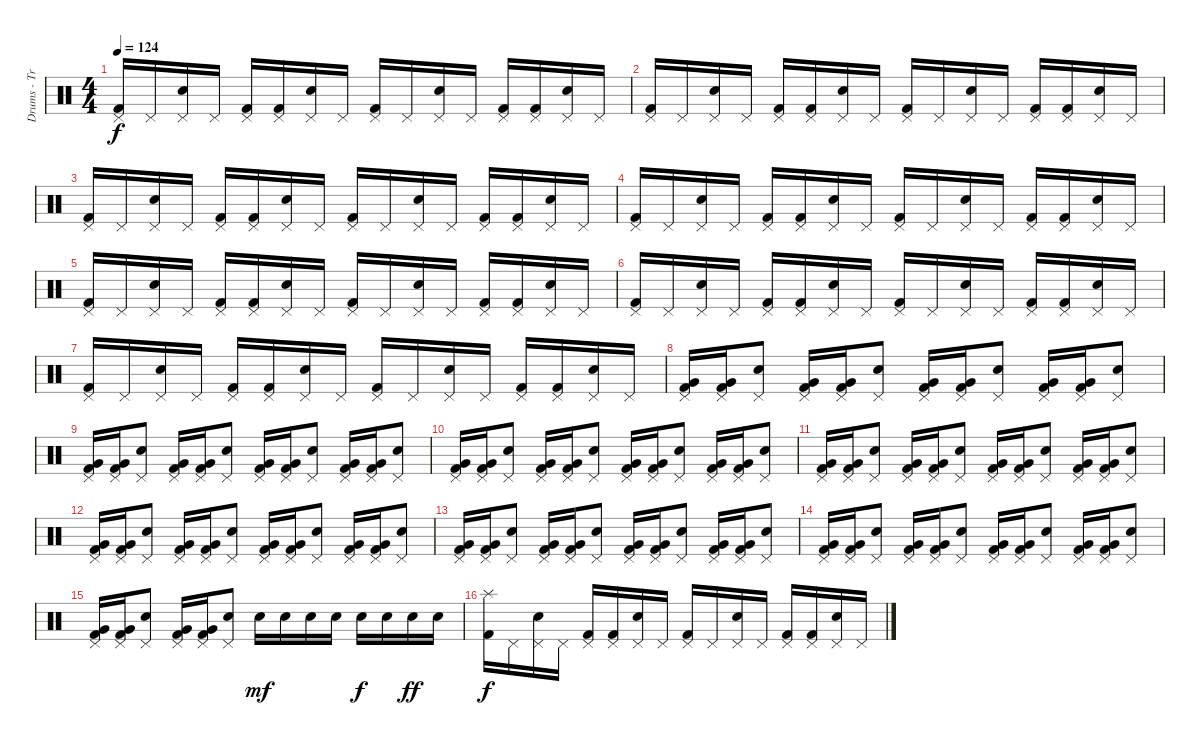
\track ("Drums - Travis Barker" "Drums - Tr") {instrument percussion}
\staff {score}
\articulation defaults
\ts (4 4)
\tempo 124
\clef neutral
\ks c
("Pedal Hi-Hat (hit)" "Kick (hit) 2").16{dy f} "Pedal Hi-Hat (hit)".16 ("Pedal Hi-Hat (hit)" "Electric Snare (hit)").16 "Pedal Hi-Hat (hit)".16 ("Pedal Hi-Hat (hit)" "Kick (hit) 2").16 ("Pedal Hi-Hat (hit)" "Kick (hit) 2").16 ("Pedal Hi-Hat (hit)" "Electric Snare (hit)").16 "Pedal Hi-Hat (hit)".16 ("Pedal Hi-Hat (hit)" "Kick (hit) 2").16 "Pedal Hi-Hat (hit)".16 ("Pedal Hi-Hat (hit)" "Electric Snare (hit)").16 "Pedal Hi-Hat (hit)".16 ("Pedal Hi-Hat (hit)" "Kick (hit) 2").16 ("Pedal Hi-Hat (hit)" "Kick (hit) 2").16 ("Pedal Hi-Hat (hit)" "Electric Snare (hit)").16 "Pedal Hi-Hat (hit)".16 |
("Pedal Hi-Hat (hit)" "Kick (hit) 2").16 "Pedal Hi-Hat (hit)".16 ("Pedal Hi-Hat (hit)" "Electric Snare (hit)").16 "Pedal Hi-Hat (hit)".16 ("Pedal Hi-Hat (hit)" "Kick (hit) 2").16 ("Pedal Hi-Hat (hit)" "Kick (hit) 2").16 ("Pedal Hi-Hat (hit)" "Electric Snare (hit)").16 "Pedal Hi-Hat (hit)".16 ("Pedal Hi-Hat (hit)" "Kick (hit) 2").16 "Pedal Hi-Hat (hit)".16 ("Pedal Hi-Hat (hit)" "Electric Snare (hit)").16 "Pedal Hi-Hat (hit)".16 ("Pedal Hi-Hat (hit)" "Kick (hit) 2").16 ("Pedal Hi-Hat (hit)" "Kick (hit) 2").16 ("Pedal Hi-Hat (hit)" "Electric Snare (hit)").16 "Pedal Hi-Hat (hit)".16 |
("Pedal Hi-Hat (hit)" "Kick (hit) 2").16 "Pedal Hi-Hat (hit)".16 ("Pedal Hi-Hat (hit)" "Electric Snare (hit)").16 "Pedal Hi-Hat (hit)".16 ("Pedal Hi-Hat (hit)" "Kick (hit) 2").16 ("Pedal Hi-Hat (hit)" "Kick (hit) 2").16 ("Pedal Hi-Hat (hit)" "Electric Snare (hit)").16 "Pedal Hi-Hat (hit)".16 ("Pedal Hi-Hat (hit)" "Kick (hit) 2").16 "Pedal Hi-Hat (hit)".16 ("Pedal Hi-Hat (hit)" "Electric Snare (hit)").16 "Pedal Hi-Hat (hit)".16 ("Pedal Hi-Hat (hit)" "Kick (hit) 2").16 ("Pedal Hi-Hat (hit)" "Kick (hit) 2").16 ("Pedal Hi-Hat (hit)" "Electric Snare (hit)").16 "Pedal Hi-Hat (hit)".16 |
("Pedal Hi-Hat (hit)" "Kick (hit) 2").16 "Pedal Hi-Hat (hit)".16 ("Pedal Hi-Hat (hit)" "Electric Snare (hit)").16 "Pedal Hi-Hat (hit)".16 ("Pedal Hi-Hat (hit)" "Kick (hit) 2").16 ("Pedal Hi-Hat (hit)" "Kick (hit) 2").16 ("Pedal Hi-Hat (hit)" "Electric Snare (hit)").16 "Pedal Hi-Hat (hit)".16 ("Pedal Hi-Hat (hit)" "Kick (hit) 2").16 "Pedal Hi-Hat (hit)".16 ("Pedal Hi-Hat (hit)" "Electric Snare (hit)").16 "Pedal Hi-Hat (hit)".16 ("Pedal Hi-Hat (hit)" "Kick (hit) 2").16 ("Pedal Hi-Hat (hit)" "Kick (hit) 2").16 ("Pedal Hi-Hat (hit)" "Electric Snare (hit)").16 "Pedal Hi-Hat (hit)".16 |
("Pedal Hi-Hat (hit)" "Kick (hit) 2").16 "Pedal Hi-Hat (hit)".16 ("Pedal Hi-Hat (hit)" "Electric Snare (hit)").16 "Pedal Hi-Hat (hit)".16 ("Pedal Hi-Hat (hit)" "Kick (hit) 2").16 ("Pedal Hi-Hat (hit)" "Kick (hit) 2").16 ("Pedal Hi-Hat (hit)" "Electric Snare (hit)").16 "Pedal Hi-Hat (hit)".16 ("Pedal Hi-Hat (hit)" "Kick (hit) 2").16 "Pedal Hi-Hat (hit)".16 ("Pedal Hi-Hat (hit)" "Electric Snare (hit)").16 "Pedal Hi-Hat (hit)".16 ("Pedal Hi-Hat (hit)" "Kick (hit) 2").16 ("Pedal Hi-Hat (hit)" "Kick (hit) 2").16 ("Pedal Hi-Hat (hit)" "Electric Snare (hit)").16 "Pedal Hi-Hat (hit)".16 |
("Pedal Hi-Hat (hit)" "Kick (hit) 2").16 "Pedal Hi-Hat (hit)".16 ("Pedal Hi-Hat (hit)" "Electric Snare (hit)").16 "Pedal Hi-Hat (hit)".16 ("Pedal Hi-Hat (hit)" "Kick (hit) 2").16 ("Pedal Hi-Hat (hit)" "Kick (hit) 2").16 ("Pedal Hi-Hat (hit)" "Electric Snare (hit)").16 "Pedal Hi-Hat (hit)".16 ("Pedal Hi-Hat (hit)" "Kick (hit) 2").16 "Pedal Hi-Hat (hit)".16 ("Pedal Hi-Hat (hit)" "Electric Snare (hit)").16 "Pedal Hi-Hat (hit)".16 ("Pedal Hi-Hat (hit)" "Kick (hit) 2").16 ("Pedal Hi-Hat (hit)" "Kick (hit) 2").16 ("Pedal Hi-Hat (hit)" "Electric Snare (hit)").16 "Pedal Hi-Hat (hit)".16 |
("Pedal Hi-Hat (hit)" "Kick (hit) 2").16 "Pedal Hi-Hat (hit)".16 ("Pedal Hi-Hat (hit)" "Electric Snare (hit)").16 "Pedal Hi-Hat (hit)".16 ("Pedal Hi-Hat (hit)" "Kick (hit) 2").16 ("Pedal Hi-Hat (hit)" "Kick (hit) 2").16 ("Pedal Hi-Hat (hit)" "Electric Snare (hit)").16 "Pedal Hi-Hat (hit)".16 ("Pedal Hi-Hat (hit)" "Kick (hit) 2").16 "Pedal Hi-Hat (hit)".16 ("Pedal Hi-Hat (hit)" "Electric Snare (hit)").16 "Pedal Hi-Hat (hit)".16 ("Pedal Hi-Hat (hit)" "Kick (hit) 2").16 ("Pedal Hi-Hat (hit)" "Kick (hit) 2").16 ("Pedal Hi-Hat (hit)" "Electric Snare (hit)").16 "Pedal Hi-Hat (hit)".16 |
("Pedal Hi-Hat (hit)" "Very Low Tom (hit)" "Kick (hit) 2").16 ("Pedal Hi-Hat (hit)" "Very Low Tom (hit)" "Kick (hit) 2").16 ("Pedal Hi-Hat (hit)" "Electric Snare (hit)").8 ("Pedal Hi-Hat (hit)" "Very Low Tom (hit)" "Kick (hit) 2").16 ("Pedal Hi-Hat (hit)" "Very Low Tom (hit)" "Kick (hit) 2").16 ("Pedal Hi-Hat (hit)" "Electric Snare (hit)").8 ("Pedal Hi-Hat (hit)" "Very Low Tom (hit)" "Kick (hit) 2").16 ("Pedal Hi-Hat (hit)" "Very Low Tom (hit)" "Kick (hit) 2").16 ("Pedal Hi-Hat (hit)" "Electric Snare (hit)").8 ("Pedal Hi-Hat (hit)" "Very Low Tom (hit)" "Kick (hit) 2").16 ("Pedal Hi-Hat (hit)" "Very Low Tom (hit)" "Kick (hit) 2").16 ("Pedal Hi-Hat (hit)" "Electric Snare (hit)").8 |
("Pedal Hi-Hat (hit)" "Very Low Tom (hit)" "Kick (hit) 2").16 ("Pedal Hi-Hat (hit)" "Very Low Tom (hit)" "Kick (hit) 2").16 ("Pedal Hi-Hat (hit)" "Electric Snare (hit)").8 ("Pedal Hi-Hat (hit)" "Very Low Tom (hit)" "Kick (hit) 2").16 ("Pedal Hi-Hat (hit)" "Very Low Tom (hit)" "Kick (hit) 2").16 ("Pedal Hi-Hat (hit)" "Electric Snare (hit)").8 ("Pedal Hi-Hat (hit)" "Very Low Tom (hit)" "Kick (hit) 2").16 ("Pedal Hi-Hat (hit)" "Very Low Tom (hit)" "Kick (hit) 2").16 ("Pedal Hi-Hat (hit)" "Electric Snare (hit)").8 ("Pedal Hi-Hat (hit)" "Very Low Tom (hit)" "Kick (hit) 2").16 ("Pedal Hi-Hat (hit)" "Very Low Tom (hit)" "Kick (hit) 2").16 ("Pedal Hi-Hat (hit)" "Electric Snare (hit)").8 |
("Pedal Hi-Hat (hit)" "Very Low Tom (hit)" "Kick (hit) 2").16 ("Pedal Hi-Hat (hit)" "Very Low Tom (hit)" "Kick (hit) 2").16 ("Pedal Hi-Hat (hit)" "Electric Snare (hit)").8 ("Pedal Hi-Hat (hit)" "Very Low Tom (hit)" "Kick (hit) 2").16 ("Pedal Hi-Hat (hit)" "Very Low Tom (hit)" "Kick (hit) 2").16 ("Pedal Hi-Hat (hit)" "Electric Snare (hit)").8 ("Pedal Hi-Hat (hit)" "Very Low Tom (hit)" "Kick (hit) 2").16 ("Pedal Hi-Hat (hit)" "Very Low Tom (hit)" "Kick (hit) 2").16 ("Pedal Hi-Hat (hit)" "Electric Snare (hit)").8 ("Pedal Hi-Hat (hit)" "Very Low Tom (hit)" "Kick (hit) 2").16 ("Pedal Hi-Hat (hit)" "Very Low Tom (hit)" "Kick (hit) 2").16 ("Pedal Hi-Hat (hit)" "Electric Snare (hit)").8 |
("Pedal Hi-Hat (hit)" "Very Low Tom (hit)" "Kick (hit) 2").16 ("Pedal Hi-Hat (hit)" "Very Low Tom (hit)" "Kick (hit) 2").16 ("Pedal Hi-Hat (hit)" "Electric Snare (hit)").8 ("Pedal Hi-Hat (hit)" "Very Low Tom (hit)" "Kick (hit) 2").16 ("Pedal Hi-Hat (hit)" "Very Low Tom (hit)" "Kick (hit) 2").16 ("Pedal Hi-Hat (hit)" "Electric Snare (hit)").8 ("Pedal Hi-Hat (hit)" "Very Low Tom (hit)" "Kick (hit) 2").16 ("Pedal Hi-Hat (hit)" "Very Low Tom (hit)" "Kick (hit) 2").16 ("Pedal Hi-Hat (hit)" "Electric Snare (hit)").8 ("Pedal Hi-Hat (hit)" "Very Low Tom (hit)" "Kick (hit) 2").16 ("Pedal Hi-Hat (hit)" "Very Low Tom (hit)" "Kick (hit) 2").16 ("Pedal Hi-Hat (hit)" "Electric Snare (hit)").8 |
("Pedal Hi-Hat (hit)" "Very Low Tom (hit)" "Kick (hit) 2").16 ("Pedal Hi-Hat (hit)" "Very Low Tom (hit)" "Kick (hit) 2").16 ("Pedal Hi-Hat (hit)" "Electric Snare (hit)").8 ("Pedal Hi-Hat (hit)" "Very Low Tom (hit)" "Kick (hit) 2").16 ("Pedal Hi-Hat (hit)" "Very Low Tom (hit)" "Kick (hit) 2").16 ("Pedal Hi-Hat (hit)" "Electric Snare (hit)").8 ("Pedal Hi-Hat (hit)" "Very Low Tom (hit)" "Kick (hit) 2").16 ("Pedal Hi-Hat (hit)" "Very Low Tom (hit)" "Kick (hit) 2").16 ("Pedal Hi-Hat (hit)" "Electric Snare (hit)").8 ("Pedal Hi-Hat (hit)" "Very Low Tom (hit)" "Kick (hit) 2").16 ("Pedal Hi-Hat (hit)" "Very Low Tom (hit)" "Kick (hit) 2").16 ("Pedal Hi-Hat (hit)" "Electric Snare (hit)").8 |
("Pedal Hi-Hat (hit)" "Very Low Tom (hit)" "Kick (hit) 2").16 ("Pedal Hi-Hat (hit)" "Very Low Tom (hit)" "Kick (hit) 2").16 ("Pedal Hi-Hat (hit)" "Electric Snare (hit)").8 ("Pedal Hi-Hat (hit)" "Very Low Tom (hit)" "Kick (hit) 2").16 ("Pedal Hi-Hat (hit)" "Very Low Tom (hit)" "Kick (hit) 2").16 ("Pedal Hi-Hat (hit)" "Electric Snare (hit)").8 ("Pedal Hi-Hat (hit)" "Very Low Tom (hit)" "Kick (hit) 2").16 ("Pedal Hi-Hat (hit)" "Very Low Tom (hit)" "Kick (hit) 2").16 ("Pedal Hi-Hat (hit)" "Electric Snare (hit)").8 ("Pedal Hi-Hat (hit)" "Very Low Tom (hit)" "Kick (hit) 2").16 ("Pedal Hi-Hat (hit)" "Very Low Tom (hit)" "Kick (hit) 2").16 ("Pedal Hi-Hat (hit)" "Electric Snare (hit)").8 |
("Pedal Hi-Hat (hit)" "Very Low Tom (hit)" "Kick (hit) 2").16 ("Pedal Hi-Hat (hit)" "Very Low Tom (hit)" "Kick (hit) 2").16 ("Pedal Hi-Hat (hit)" "Electric Snare (hit)").8 ("Pedal Hi-Hat (hit)" "Very Low Tom (hit)" "Kick (hit) 2").16 ("Pedal Hi-Hat (hit)" "Very Low Tom (hit)" "Kick (hit) 2").16 ("Pedal Hi-Hat (hit)" "Electric Snare (hit)").8 ("Pedal Hi-Hat (hit)" "Very Low Tom (hit)" "Kick (hit) 2").16 ("Pedal Hi-Hat (hit)" "Very Low Tom (hit)" "Kick (hit) 2").16 ("Pedal Hi-Hat (hit)" "Electric Snare (hit)").8 ("Pedal Hi-Hat (hit)" "Very Low Tom (hit)" "Kick (hit) 2").16 ("Pedal Hi-Hat (hit)" "Very Low Tom (hit)" "Kick (hit) 2").16 ("Pedal Hi-Hat (hit)" "Electric Snare (hit)").8 |
("Pedal Hi-Hat (hit)" "Very Low Tom (hit)" "Kick (hit) 2").16 ("Pedal Hi-Hat (hit)" "Very Low Tom (hit)" "Kick (hit) 2").16 ("Pedal Hi-Hat (hit)" "Electric Snare (hit)").8 ("Pedal Hi-Hat (hit)" "Very Low Tom (hit)" "Kick (hit) 2").16 ("Pedal Hi-Hat (hit)" "Very Low Tom (hit)" "Kick (hit) 2").16 ("Pedal Hi-Hat (hit)" "Electric Snare (hit)").8 "Electric Snare (hit)".16{dy mf} "Electric Snare (hit)".16 "Electric Snare (hit)".16 "Electric Snare (hit)".16 "Electric Snare (hit)".16{dy f} "Electric Snare (hit)".16 "Electric Snare (hit)".16{dy ff} "Electric Snare (hit)".16 |
("Splash (hit)" "Kick (hit) 2").16{dy f} "Pedal Hi-Hat (hit)".16 ("Pedal Hi-Hat (hit)" "Electric Snare (hit)").16 "Pedal Hi-Hat (hit)".16 ("Pedal Hi-Hat (hit)" "Kick (hit) 2").16 ("Pedal Hi-Hat (hit)" "Kick (hit) 2").16 ("Pedal Hi-Hat (hit)" "Electric Snare (hit)").16 "Pedal Hi-Hat (hit)".16 ("Pedal Hi-Hat (hit)" "Kick (hit) 2").16 "Pedal Hi-Hat (hit)".16 ("Pedal Hi-Hat (hit)" "Electric Snare (hit)").16 "Pedal Hi-Hat (hit)".16 ("Pedal Hi-Hat (hit)" "Kick (hit) 2").16 ("Pedal Hi-Hat (hit)" "Kick (hit) 2").16 ("Pedal Hi-Hat (hit)" "Electric Snare (hit)").16 "Pedal Hi-Hat (hit)".16
